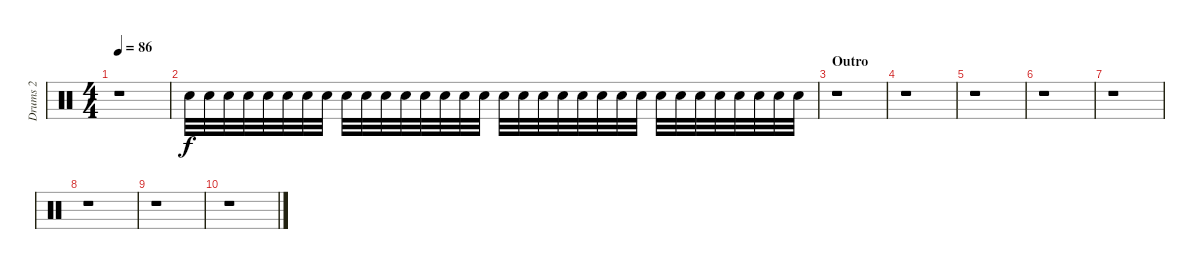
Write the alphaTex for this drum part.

\track ("Drums 2" "Drums 2") {instrument percussion}
\staff {score}
\articulation defaults
\ts (4 4)
\tempo 86
\clef neutral
\ks c
r.1{dy f} |
"Electric Snare (hit)".32 "Electric Snare (hit)".32 "Electric Snare (hit)".32 "Electric Snare (hit)".32 "Electric Snare (hit)".32 "Electric Snare (hit)".32 "Electric Snare (hit)".32 "Electric Snare (hit)".32 "Electric Snare (hit)".32 "Electric Snare (hit)".32 "Electric Snare (hit)".32 "Electric Snare (hit)".32 "Electric Snare (hit)".32 "Electric Snare (hit)".32 "Electric Snare (hit)".32 "Electric Snare (hit)".32 "Electric Snare (hit)".32 "Electric Snare (hit)".32 "Electric Snare (hit)".32 "Electric Snare (hit)".32 "Electric Snare (hit)".32 "Electric Snare (hit)".32 "Electric Snare (hit)".32 "Electric Snare (hit)".32 "Electric Snare (hit)".32 "Electric Snare (hit)".32 "Electric Snare (hit)".32 "Electric Snare (hit)".32 "Electric Snare (hit)".32 "Electric Snare (hit)".32 "Electric Snare (hit)".32 "Electric Snare (hit)".32 |
\section ("" "Outro")
r.1 |
r.1 |
r.1 |
r.1 |
r.1 |
r.1 |
r.1 |
r.1
